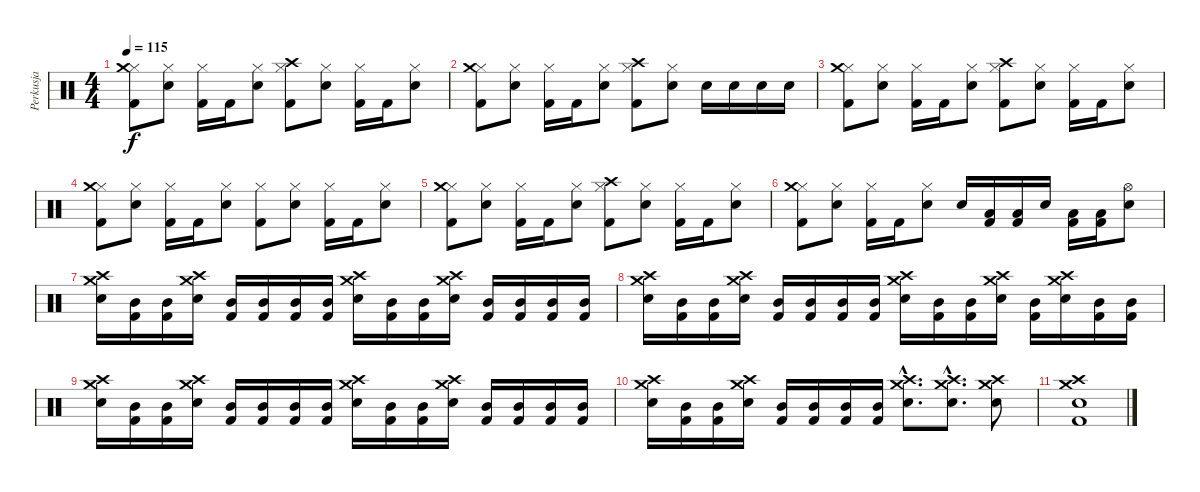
\track ("Perkusja" "Perkusja") {instrument percussion}
\staff {score}
\articulation defaults
\ts (4 4)
\tempo 115
\clef neutral
\ks c
("Hi-Hat (closed)" "Kick (hit) 2" "Crash medium (hit)").8{dy f} ("Hi-Hat (closed)" "Electric Snare (hit)").8 ("Hi-Hat (closed)" "Kick (hit) 2").16 "Kick (hit) 2".16 ("Hi-Hat (closed)" "Electric Snare (hit)").8 ("Hi-Hat (closed)" "Kick (hit) 2" "Crash high (hit)").8 ("Hi-Hat (closed)" "Electric Snare (hit)").8 ("Hi-Hat (closed)" "Kick (hit) 2").16 "Kick (hit) 2".16 ("Hi-Hat (closed)" "Electric Snare (hit)").8 |
("Hi-Hat (closed)" "Kick (hit) 2" "Crash medium (hit)").8 ("Hi-Hat (closed)" "Electric Snare (hit)").8 ("Hi-Hat (closed)" "Kick (hit) 2").16 "Kick (hit) 2".16 ("Hi-Hat (closed)" "Electric Snare (hit)").8 ("Hi-Hat (closed)" "Kick (hit) 2" "Crash high (hit)").8 ("Hi-Hat (closed)" "Electric Snare (hit)").8 "Electric Snare (hit)".16 "Electric Snare (hit)".16 "Electric Snare (hit)".16 "Electric Snare (hit)".16 |
("Hi-Hat (closed)" "Kick (hit) 2" "Crash medium (hit)").8 ("Hi-Hat (closed)" "Electric Snare (hit)").8 ("Hi-Hat (closed)" "Kick (hit) 2").16 "Kick (hit) 2".16 ("Hi-Hat (closed)" "Electric Snare (hit)").8 ("Hi-Hat (closed)" "Kick (hit) 2" "Crash high (hit)").8 ("Hi-Hat (closed)" "Electric Snare (hit)").8 ("Hi-Hat (closed)" "Kick (hit) 2").16 "Kick (hit) 2".16 ("Hi-Hat (closed)" "Electric Snare (hit)").8 |
("Hi-Hat (closed)" "Kick (hit) 2" "Crash medium (hit)").8 ("Hi-Hat (closed)" "Electric Snare (hit)").8 ("Hi-Hat (closed)" "Kick (hit) 2").16 "Kick (hit) 2".16 ("Hi-Hat (closed)" "Electric Snare (hit)").8 ("Hi-Hat (closed)" "Kick (hit) 2").8 ("Hi-Hat (closed)" "Electric Snare (hit)").8 ("Hi-Hat (closed)" "Kick (hit) 2").16 "Kick (hit) 2".16 ("Hi-Hat (closed)" "Electric Snare (hit)").8 |
("Hi-Hat (closed)" "Kick (hit) 2" "Crash medium (hit)").8 ("Hi-Hat (closed)" "Electric Snare (hit)").8 ("Hi-Hat (closed)" "Kick (hit) 2").16 "Kick (hit) 2".16 ("Hi-Hat (closed)" "Electric Snare (hit)").8 ("Hi-Hat (closed)" "Kick (hit) 2" "Crash high (hit)").8 ("Hi-Hat (closed)" "Electric Snare (hit)").8 ("Hi-Hat (closed)" "Kick (hit) 2").16 "Kick (hit) 2".16 ("Hi-Hat (closed)" "Electric Snare (hit)").8 |
("Hi-Hat (closed)" "Kick (hit) 2" "Crash medium (hit)").8 ("Hi-Hat (closed)" "Electric Snare (hit)").8 ("Hi-Hat (closed)" "Kick (hit) 2").16 "Kick (hit) 2".16 ("Hi-Hat (closed)" "Electric Snare (hit)").8 "Electric Snare (hit)".16 ("Low Tom (hit)" "Kick (hit) 2").16 ("Low Tom (hit)" "Kick (hit) 2").16 "Electric Snare (hit)".16 ("Low Tom (hit)" "Kick (hit) 2").16 ("Low Tom (hit)" "Kick (hit) 2").16 ("Electric Snare (hit)" "Hi-Hat (open)").8 |
("Electric Snare (hit)" "Crash high (hit)" "Crash medium (hit)").16 ("Mid Tom (hit)" "Kick (hit) 2").16 ("Mid Tom (hit)" "Kick (hit) 2").16 ("Electric Snare (hit)" "Crash medium (hit)" "Crash high (hit)").16 ("Mid Tom (hit)" "Kick (hit) 2").16 ("Mid Tom (hit)" "Kick (hit) 2").16 ("Mid Tom (hit)" "Kick (hit) 2").16 ("Mid Tom (hit)" "Kick (hit) 2").16 ("Electric Snare (hit)" "Crash high (hit)" "Crash medium (hit)").16 ("Mid Tom (hit)" "Kick (hit) 2").16 ("Mid Tom (hit)" "Kick (hit) 2").16 ("Electric Snare (hit)" "Crash medium (hit)" "Crash high (hit)").16 ("Mid Tom (hit)" "Kick (hit) 2").16 ("Mid Tom (hit)" "Kick (hit) 2").16 ("Mid Tom (hit)" "Kick (hit) 2").16 ("Mid Tom (hit)" "Kick (hit) 2").16 |
("Electric Snare (hit)" "Crash high (hit)" "Crash medium (hit)").16 ("Mid Tom (hit)" "Kick (hit) 2").16 ("Mid Tom (hit)" "Kick (hit) 2").16 ("Electric Snare (hit)" "Crash medium (hit)" "Crash high (hit)").16 ("Mid Tom (hit)" "Kick (hit) 2").16 ("Mid Tom (hit)" "Kick (hit) 2").16 ("Mid Tom (hit)" "Kick (hit) 2").16 ("Mid Tom (hit)" "Kick (hit) 2").16 ("Electric Snare (hit)" "Crash high (hit)" "Crash medium (hit)").16 ("Mid Tom (hit)" "Kick (hit) 2").16 ("Mid Tom (hit)" "Kick (hit) 2").16 ("Electric Snare (hit)" "Crash medium (hit)" "Crash high (hit)").16 ("Mid Tom (hit)" "Kick (hit) 2").16 ("Electric Snare (hit)" "Crash medium (hit)" "Crash high (hit)").16 ("Mid Tom (hit)" "Kick (hit) 2").16 ("Mid Tom (hit)" "Kick (hit) 2").16 |
("Electric Snare (hit)" "Crash high (hit)" "Crash medium (hit)").16 ("Mid Tom (hit)" "Kick (hit) 2").16 ("Mid Tom (hit)" "Kick (hit) 2").16 ("Electric Snare (hit)" "Crash medium (hit)" "Crash high (hit)").16 ("Mid Tom (hit)" "Kick (hit) 2").16 ("Mid Tom (hit)" "Kick (hit) 2").16 ("Mid Tom (hit)" "Kick (hit) 2").16 ("Mid Tom (hit)" "Kick (hit) 2").16 ("Electric Snare (hit)" "Crash high (hit)" "Crash medium (hit)").16 ("Mid Tom (hit)" "Kick (hit) 2").16 ("Mid Tom (hit)" "Kick (hit) 2").16 ("Electric Snare (hit)" "Crash medium (hit)" "Crash high (hit)").16 ("Mid Tom (hit)" "Kick (hit) 2").16 ("Mid Tom (hit)" "Kick (hit) 2").16 ("Mid Tom (hit)" "Kick (hit) 2").16 ("Mid Tom (hit)" "Kick (hit) 2").16 |
("Electric Snare (hit)" "Crash high (hit)" "Crash medium (hit)").16 ("Mid Tom (hit)" "Kick (hit) 2").16 ("Mid Tom (hit)" "Kick (hit) 2").16 ("Electric Snare (hit)" "Crash medium (hit)" "Crash high (hit)").16 ("Mid Tom (hit)" "Kick (hit) 2").16 ("Mid Tom (hit)" "Kick (hit) 2").16 ("Mid Tom (hit)" "Kick (hit) 2").16 ("Mid Tom (hit)" "Kick (hit) 2").16 ("Electric Snare (hit)"{hac} "Crash high (hit)"{hac} "Crash medium (hit)"{hac}).8{d} ("Electric Snare (hit)"{hac} "Crash medium (hit)"{hac} "Crash high (hit)"{hac}).8{d} ("Electric Snare (hit)" "Crash medium (hit)" "Crash high (hit)").8 |
("Electric Snare (hit)" "Kick (hit) 2" "Crash high (hit)" "Crash medium (hit)").1
